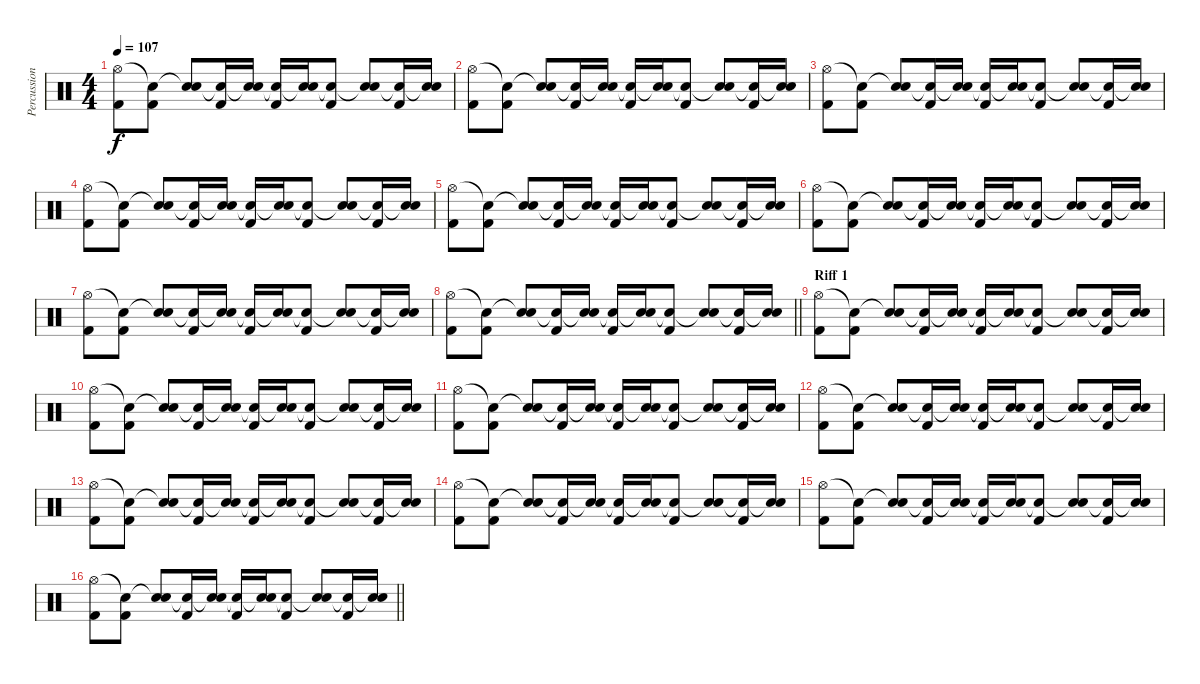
\track ("Percussioni" "Percussion") {instrument percussion}
\staff {score}
\articulation defaults
\ts (4 4)
\tempo 107
\clef neutral
\ks c
("Hi-Hat (open)" "Kick (hit) 2").8{dy f} ("Snare (hit)"{t} "Kick (hit) 2").8 ("Snare (hit)"{t} "Electric Snare (hit)").8 ("Snare (hit)"{t} "Kick (hit) 2").16 ("Snare (hit)"{t} "Electric Snare (hit)").16 ("Snare (hit)"{t} "Kick (hit) 2").16 ("Snare (hit)"{t} "Electric Snare (hit)").16 ("Snare (hit)"{t} "Kick (hit) 2").8 ("Snare (hit)"{t} "Electric Snare (hit)").8 ("Snare (hit)"{t} "Kick (hit) 2").16 ("Snare (hit)"{t} "Electric Snare (hit)").16 |
("Hi-Hat (open)" "Kick (hit) 2").8 ("Snare (hit)"{t} "Kick (hit) 2").8 ("Snare (hit)"{t} "Electric Snare (hit)").8 ("Snare (hit)"{t} "Kick (hit) 2").16 ("Snare (hit)"{t} "Electric Snare (hit)").16 ("Snare (hit)"{t} "Kick (hit) 2").16 ("Snare (hit)"{t} "Electric Snare (hit)").16 ("Snare (hit)"{t} "Kick (hit) 2").8 ("Snare (hit)"{t} "Electric Snare (hit)").8 ("Snare (hit)"{t} "Kick (hit) 2").16 ("Snare (hit)"{t} "Electric Snare (hit)").16 |
("Hi-Hat (open)" "Kick (hit) 2").8 ("Snare (hit)"{t} "Kick (hit) 2").8 ("Snare (hit)"{t} "Electric Snare (hit)").8 ("Snare (hit)"{t} "Kick (hit) 2").16 ("Snare (hit)"{t} "Electric Snare (hit)").16 ("Snare (hit)"{t} "Kick (hit) 2").16 ("Snare (hit)"{t} "Electric Snare (hit)").16 ("Snare (hit)"{t} "Kick (hit) 2").8 ("Snare (hit)"{t} "Electric Snare (hit)").8 ("Snare (hit)"{t} "Kick (hit) 2").16 ("Snare (hit)"{t} "Electric Snare (hit)").16 |
("Hi-Hat (open)" "Kick (hit) 2").8 ("Snare (hit)"{t} "Kick (hit) 2").8 ("Snare (hit)"{t} "Electric Snare (hit)").8 ("Snare (hit)"{t} "Kick (hit) 2").16 ("Snare (hit)"{t} "Electric Snare (hit)").16 ("Snare (hit)"{t} "Kick (hit) 2").16 ("Snare (hit)"{t} "Electric Snare (hit)").16 ("Snare (hit)"{t} "Kick (hit) 2").8 ("Snare (hit)"{t} "Electric Snare (hit)").8 ("Snare (hit)"{t} "Kick (hit) 2").16 ("Snare (hit)"{t} "Electric Snare (hit)").16 |
("Hi-Hat (open)" "Kick (hit) 2").8 ("Snare (hit)"{t} "Kick (hit) 2").8 ("Snare (hit)"{t} "Electric Snare (hit)").8 ("Snare (hit)"{t} "Kick (hit) 2").16 ("Snare (hit)"{t} "Electric Snare (hit)").16 ("Snare (hit)"{t} "Kick (hit) 2").16 ("Snare (hit)"{t} "Electric Snare (hit)").16 ("Snare (hit)"{t} "Kick (hit) 2").8 ("Snare (hit)"{t} "Electric Snare (hit)").8 ("Snare (hit)"{t} "Kick (hit) 2").16 ("Snare (hit)"{t} "Electric Snare (hit)").16 |
("Hi-Hat (open)" "Kick (hit) 2").8 ("Snare (hit)"{t} "Kick (hit) 2").8 ("Snare (hit)"{t} "Electric Snare (hit)").8 ("Snare (hit)"{t} "Kick (hit) 2").16 ("Snare (hit)"{t} "Electric Snare (hit)").16 ("Snare (hit)"{t} "Kick (hit) 2").16 ("Snare (hit)"{t} "Electric Snare (hit)").16 ("Snare (hit)"{t} "Kick (hit) 2").8 ("Snare (hit)"{t} "Electric Snare (hit)").8 ("Snare (hit)"{t} "Kick (hit) 2").16 ("Snare (hit)"{t} "Electric Snare (hit)").16 |
("Hi-Hat (open)" "Kick (hit) 2").8 ("Snare (hit)"{t} "Kick (hit) 2").8 ("Snare (hit)"{t} "Electric Snare (hit)").8 ("Snare (hit)"{t} "Kick (hit) 2").16 ("Snare (hit)"{t} "Electric Snare (hit)").16 ("Snare (hit)"{t} "Kick (hit) 2").16 ("Snare (hit)"{t} "Electric Snare (hit)").16 ("Snare (hit)"{t} "Kick (hit) 2").8 ("Snare (hit)"{t} "Electric Snare (hit)").8 ("Snare (hit)"{t} "Kick (hit) 2").16 ("Snare (hit)"{t} "Electric Snare (hit)").16 |
\barLineRight lightlight
("Hi-Hat (open)" "Kick (hit) 2").8 ("Snare (hit)"{t} "Kick (hit) 2").8 ("Snare (hit)"{t} "Electric Snare (hit)").8 ("Snare (hit)"{t} "Kick (hit) 2").16 ("Snare (hit)"{t} "Electric Snare (hit)").16 ("Snare (hit)"{t} "Kick (hit) 2").16 ("Snare (hit)"{t} "Electric Snare (hit)").16 ("Snare (hit)"{t} "Kick (hit) 2").8 ("Snare (hit)"{t} "Electric Snare (hit)").8 ("Snare (hit)"{t} "Kick (hit) 2").16 ("Snare (hit)"{t} "Electric Snare (hit)").16 |
\section ("" "Riff 1")
("Hi-Hat (open)" "Kick (hit) 2").8 ("Snare (hit)"{t} "Kick (hit) 2").8 ("Snare (hit)"{t} "Electric Snare (hit)").8 ("Snare (hit)"{t} "Kick (hit) 2").16 ("Snare (hit)"{t} "Electric Snare (hit)").16 ("Snare (hit)"{t} "Kick (hit) 2").16 ("Snare (hit)"{t} "Electric Snare (hit)").16 ("Snare (hit)"{t} "Kick (hit) 2").8 ("Snare (hit)"{t} "Electric Snare (hit)").8 ("Snare (hit)"{t} "Kick (hit) 2").16 ("Snare (hit)"{t} "Electric Snare (hit)").16 |
("Hi-Hat (open)" "Kick (hit) 2").8 ("Snare (hit)"{t} "Kick (hit) 2").8 ("Snare (hit)"{t} "Electric Snare (hit)").8 ("Snare (hit)"{t} "Kick (hit) 2").16 ("Snare (hit)"{t} "Electric Snare (hit)").16 ("Snare (hit)"{t} "Kick (hit) 2").16 ("Snare (hit)"{t} "Electric Snare (hit)").16 ("Snare (hit)"{t} "Kick (hit) 2").8 ("Snare (hit)"{t} "Electric Snare (hit)").8 ("Snare (hit)"{t} "Kick (hit) 2").16 ("Snare (hit)"{t} "Electric Snare (hit)").16 |
("Hi-Hat (open)" "Kick (hit) 2").8 ("Snare (hit)"{t} "Kick (hit) 2").8 ("Snare (hit)"{t} "Electric Snare (hit)").8 ("Snare (hit)"{t} "Kick (hit) 2").16 ("Snare (hit)"{t} "Electric Snare (hit)").16 ("Snare (hit)"{t} "Kick (hit) 2").16 ("Snare (hit)"{t} "Electric Snare (hit)").16 ("Snare (hit)"{t} "Kick (hit) 2").8 ("Snare (hit)"{t} "Electric Snare (hit)").8 ("Snare (hit)"{t} "Kick (hit) 2").16 ("Snare (hit)"{t} "Electric Snare (hit)").16 |
("Hi-Hat (open)" "Kick (hit) 2").8 ("Snare (hit)"{t} "Kick (hit) 2").8 ("Snare (hit)"{t} "Electric Snare (hit)").8 ("Snare (hit)"{t} "Kick (hit) 2").16 ("Snare (hit)"{t} "Electric Snare (hit)").16 ("Snare (hit)"{t} "Kick (hit) 2").16 ("Snare (hit)"{t} "Electric Snare (hit)").16 ("Snare (hit)"{t} "Kick (hit) 2").8 ("Snare (hit)"{t} "Electric Snare (hit)").8 ("Snare (hit)"{t} "Kick (hit) 2").16 ("Snare (hit)"{t} "Electric Snare (hit)").16 |
("Hi-Hat (open)" "Kick (hit) 2").8 ("Snare (hit)"{t} "Kick (hit) 2").8 ("Snare (hit)"{t} "Electric Snare (hit)").8 ("Snare (hit)"{t} "Kick (hit) 2").16 ("Snare (hit)"{t} "Electric Snare (hit)").16 ("Snare (hit)"{t} "Kick (hit) 2").16 ("Snare (hit)"{t} "Electric Snare (hit)").16 ("Snare (hit)"{t} "Kick (hit) 2").8 ("Snare (hit)"{t} "Electric Snare (hit)").8 ("Snare (hit)"{t} "Kick (hit) 2").16 ("Snare (hit)"{t} "Electric Snare (hit)").16 |
("Hi-Hat (open)" "Kick (hit) 2").8 ("Snare (hit)"{t} "Kick (hit) 2").8 ("Snare (hit)"{t} "Electric Snare (hit)").8 ("Snare (hit)"{t} "Kick (hit) 2").16 ("Snare (hit)"{t} "Electric Snare (hit)").16 ("Snare (hit)"{t} "Kick (hit) 2").16 ("Snare (hit)"{t} "Electric Snare (hit)").16 ("Snare (hit)"{t} "Kick (hit) 2").8 ("Snare (hit)"{t} "Electric Snare (hit)").8 ("Snare (hit)"{t} "Kick (hit) 2").16 ("Snare (hit)"{t} "Electric Snare (hit)").16 |
("Hi-Hat (open)" "Kick (hit) 2").8 ("Snare (hit)"{t} "Kick (hit) 2").8 ("Snare (hit)"{t} "Electric Snare (hit)").8 ("Snare (hit)"{t} "Kick (hit) 2").16 ("Snare (hit)"{t} "Electric Snare (hit)").16 ("Snare (hit)"{t} "Kick (hit) 2").16 ("Snare (hit)"{t} "Electric Snare (hit)").16 ("Snare (hit)"{t} "Kick (hit) 2").8 ("Snare (hit)"{t} "Electric Snare (hit)").8 ("Snare (hit)"{t} "Kick (hit) 2").16 ("Snare (hit)"{t} "Electric Snare (hit)").16 |
\barLineRight lightlight
("Hi-Hat (open)" "Kick (hit) 2").8 ("Snare (hit)"{t} "Kick (hit) 2").8 ("Snare (hit)"{t} "Electric Snare (hit)").8 ("Snare (hit)"{t} "Kick (hit) 2").16 ("Snare (hit)"{t} "Electric Snare (hit)").16 ("Snare (hit)"{t} "Kick (hit) 2").16 ("Snare (hit)"{t} "Electric Snare (hit)").16 ("Snare (hit)"{t} "Kick (hit) 2").8 ("Snare (hit)"{t} "Electric Snare (hit)").8 ("Snare (hit)"{t} "Kick (hit) 2").16 ("Snare (hit)"{t} "Electric Snare (hit)").16
